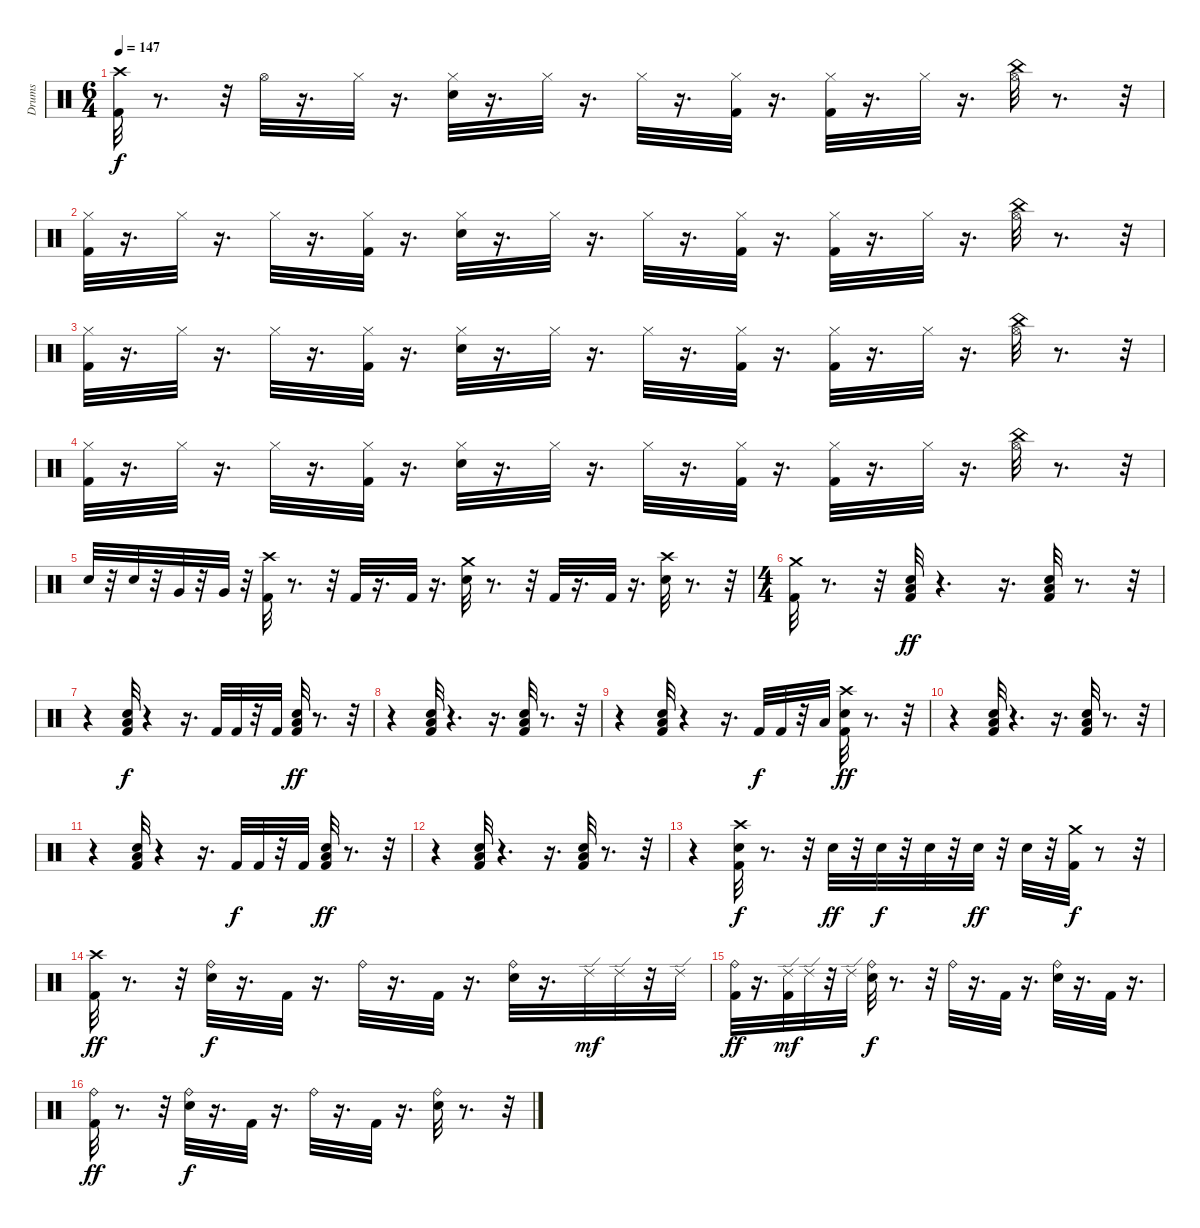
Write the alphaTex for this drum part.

\track ("Drums" "Drums") {instrument percussion}
\staff {score}
\articulation defaults
\ts (6 4)
\tempo 147
\clef neutral
\ks c
("Crash high (hit)" "Kick (hit) 2").32{dy f} r.8{d} r.32 "Hi-Hat (open)".32 r.16{d} "Hi-Hat (closed)".32 r.16{d} ("Snare (hit) 2" "Hi-Hat (closed)").32 r.16{d} "Hi-Hat (closed)".32 r.16{d} "Hi-Hat (closed)".32 r.16{d} ("Kick (hit) 2" "Hi-Hat (closed)").32 r.16{d} ("Kick (hit) 2" "Hi-Hat (closed)").32 r.16{d} "Hi-Hat (closed)".32 r.16{d} ("Hi-Hat (open)" "China (hit)").32 r.8{d} r.32 |
("Kick (hit) 2" "Hi-Hat (closed)").32 r.16{d} "Hi-Hat (closed)".32 r.16{d} "Hi-Hat (closed)".32 r.16{d} ("Kick (hit) 2" "Hi-Hat (closed)").32 r.16{d} ("Snare (hit) 2" "Hi-Hat (closed)").32 r.16{d} "Hi-Hat (closed)".32 r.16{d} "Hi-Hat (closed)".32 r.16{d} ("Kick (hit) 2" "Hi-Hat (closed)").32 r.16{d} ("Kick (hit) 2" "Hi-Hat (closed)").32 r.16{d} "Hi-Hat (closed)".32 r.16{d} ("Hi-Hat (open)" "China (hit)").32 r.8{d} r.32 |
("Kick (hit) 2" "Hi-Hat (closed)").32 r.16{d} "Hi-Hat (closed)".32 r.16{d} "Hi-Hat (closed)".32 r.16{d} ("Kick (hit) 2" "Hi-Hat (closed)").32 r.16{d} ("Snare (hit) 2" "Hi-Hat (closed)").32 r.16{d} "Hi-Hat (closed)".32 r.16{d} "Hi-Hat (closed)".32 r.16{d} ("Kick (hit) 2" "Hi-Hat (closed)").32 r.16{d} ("Kick (hit) 2" "Hi-Hat (closed)").32 r.16{d} "Hi-Hat (closed)".32 r.16{d} ("Hi-Hat (open)" "China (hit)").32 r.8{d} r.32 |
("Kick (hit) 2" "Hi-Hat (closed)").32 r.16{d} "Hi-Hat (closed)".32 r.16{d} "Hi-Hat (closed)".32 r.16{d} ("Kick (hit) 2" "Hi-Hat (closed)").32 r.16{d} ("Snare (hit) 2" "Hi-Hat (closed)").32 r.16{d} "Hi-Hat (closed)".32 r.16{d} "Hi-Hat (closed)".32 r.16{d} ("Kick (hit) 2" "Hi-Hat (closed)").32 r.16{d} ("Kick (hit) 2" "Hi-Hat (closed)").32 r.16{d} "Hi-Hat (closed)".32 r.16{d} ("Hi-Hat (open)" "China (hit)").32 r.8{d} r.32 |
"Snare (hit) 2".32 r.32 "Snare (hit) 2".32 r.32 "Very Low Tom (hit)".32 r.32 "Very Low Tom (hit)".32 r.32 ("Crash high (hit)" "Kick (hit) 2").32 r.8{d} r.32 "Kick (hit) 2".32 r.16{d} "Kick (hit) 2".32 r.16{d} ("Snare (hit) 2" "Crash medium (hit)").32 r.8{d} r.32 "Kick (hit) 2".32 r.16{d} "Kick (hit) 2".32 r.16{d} ("Snare (hit) 2" "Crash high (hit)").32 r.8{d} r.32 |
\ts (4 4)
("Crash medium (hit)" "Kick (hit) 2").32 r.8{d} r.32 ("Low Floor Tom (hit)" "Snare (hit) 2" "Kick (hit) 2").32{dy ff} r.4{d} r.16{d} ("Low Floor Tom (hit)" "Snare (hit) 2" "Kick (hit) 2").32 r.8{d} r.32 |
r.4 ("Kick (hit) 2" "Snare (hit) 2" "Low Floor Tom (hit)").32{dy f} r.4 r.16{d} "Kick (hit) 2".32 "Kick (hit) 2".32 r.32 "Kick (hit) 2".32 ("Kick (hit) 2" "Snare (hit) 2" "Low Floor Tom (hit)").32{dy ff} r.8{d} r.32 |
r.4 ("Low Floor Tom (hit)" "Kick (hit) 2" "Snare (hit) 2").32 r.4{d} r.16{d} ("Low Floor Tom (hit)" "Kick (hit) 2" "Snare (hit) 2").32 r.8{d} r.32 |
r.4 ("Snare (hit) 2" "Kick (hit) 2" "Low Floor Tom (hit)").32 r.4 r.16{d} "Kick (hit) 2".32{dy f} "Kick (hit) 2".32 r.32 "Low Floor Tom (hit)".32 ("Snare (hit) 2" "Crash high (hit)" "Kick (hit) 2").32{dy ff} r.8{d} r.32 |
r.4 ("Low Floor Tom (hit)" "Kick (hit) 2" "Snare (hit) 2").32 r.4{d} r.16{d} ("Kick (hit) 2" "Snare (hit) 2" "Low Floor Tom (hit)").32 r.8{d} r.32 |
r.4 ("Snare (hit) 2" "Kick (hit) 2" "Low Floor Tom (hit)").32 r.4 r.16{d} "Kick (hit) 2".32{dy f} "Kick (hit) 2".32 r.32 "Kick (hit) 2".32 ("Low Floor Tom (hit)" "Snare (hit) 2" "Kick (hit) 2").32{dy ff} r.8{d} r.32 |
r.4 ("Low Floor Tom (hit)" "Kick (hit) 2" "Snare (hit) 2").32 r.4{d} r.16{d} ("Low Floor Tom (hit)" "Kick (hit) 2" "Snare (hit) 2").32 r.8{d} r.32 |
r.4 ("Crash high (hit)" "Snare (hit) 2" "Kick (hit) 2").32{dy f} r.8{d} r.32 "Snare (hit) 2".32{dy ff} r.32 "Snare (hit) 2".32{dy f} r.32 "Snare (hit) 2".32 r.32 "Snare (hit) 2".32{dy ff} r.32 "Snare (hit) 2".32 r.32 ("Crash medium (hit)" "Kick (hit) 2").32{dy f} r.8 r.32 |
("Crash high (hit)" "Kick (hit) 2").32{dy ff} r.8{d} r.32 ("Ride (bell)" "Snare (hit) 2").32{dy f} r.16{d} "Kick (hit) 2".32 r.16{d} "Ride (bell)".32 r.16{d} "Kick (hit) 2".32 r.16{d} ("Ride (bell)" "Snare (hit) 2").32 r.16{d} "Ride (edge) 2".32{dy mf} "Ride (edge) 2".32 r.32 "Ride (edge) 2".32 |
("Kick (hit) 2" "Ride (bell)").32{dy ff} r.16{d} ("Ride (edge) 2" "Kick (hit) 2").32{dy mf} "Ride (edge) 2".32 r.32 "Ride (edge) 2".32 ("Snare (hit) 2" "Ride (bell)").32{dy f} r.8{d} r.32 "Ride (bell)".32 r.16{d} "Kick (hit) 2".32 r.16{d} ("Snare (hit) 2" "Ride (bell)").32 r.16{d} "Kick (hit) 2".32 r.16{d} |
("Ride (bell)" "Kick (hit) 2").32{dy ff} r.8{d} r.32 ("Ride (bell)" "Snare (hit) 2").32{dy f} r.16{d} "Kick (hit) 2".32 r.16{d} "Ride (bell)".32 r.16{d} "Kick (hit) 2".32 r.16{d} ("Ride (bell)" "Snare (hit) 2").32 r.8{d} r.32
